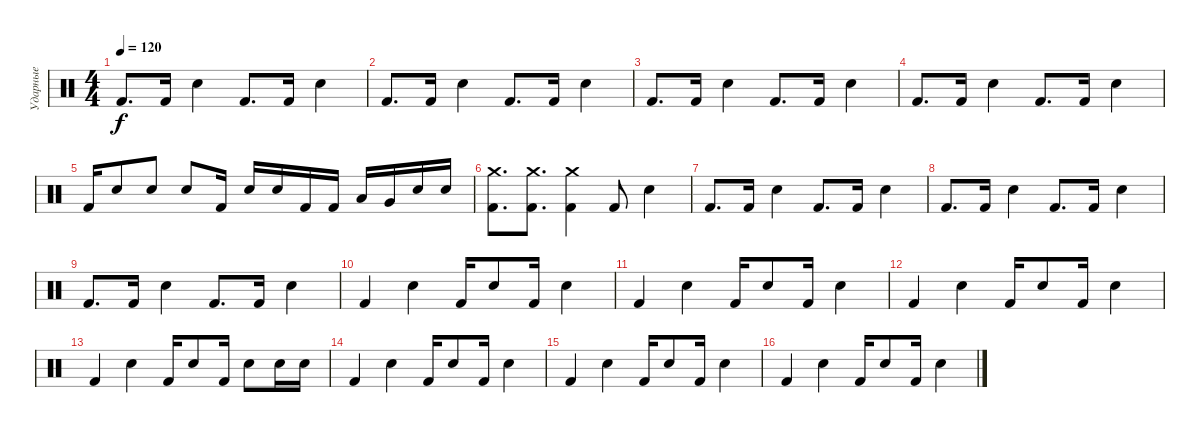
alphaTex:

\track ("Ударные" "Ударные") {instrument percussion}
\staff {score}
\articulation defaults
\ts (4 4)
\tempo 120
\clef neutral
\ks c "Kick (hit) 2".8{d dy f} "Kick (hit) 2".16 "Snare (hit) 2".4 "Kick (hit) 2".8{d} "Kick (hit) 2".16 "Snare (hit) 2".4
|
"Kick (hit) 2".8{d} "Kick (hit) 2".16 "Snare (hit) 2".4 "Kick (hit) 2".8{d} "Kick (hit) 2".16 "Snare (hit) 2".4 |
"Kick (hit) 2".8{d} "Kick (hit) 2".16 "Snare (hit) 2".4 "Kick (hit) 2".8{d} "Kick (hit) 2".16 "Snare (hit) 2".4 |
"Kick (hit) 2".8{d} "Kick (hit) 2".16 "Snare (hit) 2".4 "Kick (hit) 2".8{d} "Kick (hit) 2".16 "Snare (hit) 2".4 |
"Kick (hit) 2".16 "Snare (hit) 2".8 "Snare (hit) 2".8 "Snare (hit) 2".8 "Kick (hit) 2".16 "Snare (hit) 2".16 "Snare (hit) 2".16 "Kick (hit) 2".16 "Kick (hit) 2".16 "Low Tom (hit)".16 "Very Low Tom (hit)".16 "Snare (hit) 2".16 "Snare (hit) 2".16 |
("Crash medium (hit)" "Kick (hit) 2").8{d} ("Crash medium (hit)" "Kick (hit) 2").8{d} ("Crash medium (hit)" "Kick (hit) 2").4 "Kick (hit) 2".8 "Snare (hit) 2".4 |
"Kick (hit) 2".8{d} "Kick (hit) 2".16 "Snare (hit) 2".4 "Kick (hit) 2".8{d} "Kick (hit) 2".16 "Snare (hit) 2".4 |
"Kick (hit) 2".8{d} "Kick (hit) 2".16 "Snare (hit) 2".4 "Kick (hit) 2".8{d} "Kick (hit) 2".16 "Snare (hit) 2".4 |
"Kick (hit) 2".8{d} "Kick (hit) 2".16 "Snare (hit) 2".4 "Kick (hit) 2".8{d} "Kick (hit) 2".16 "Snare (hit) 2".4 |
"Kick (hit) 2".4 "Snare (hit) 2".4 "Kick (hit) 2".16 "Snare (hit) 2".8 "Kick (hit) 2".16 "Snare (hit) 2".4 |
"Kick (hit) 2".4 "Snare (hit) 2".4 "Kick (hit) 2".16 "Snare (hit) 2".8 "Kick (hit) 2".16 "Snare (hit) 2".4 |
"Kick (hit) 2".4 "Snare (hit) 2".4 "Kick (hit) 2".16 "Snare (hit) 2".8 "Kick (hit) 2".16 "Snare (hit) 2".4 |
"Kick (hit) 2".4 "Snare (hit) 2".4 "Kick (hit) 2".16 "Snare (hit) 2".8 "Kick (hit) 2".16 "Snare (hit) 2".8 "Snare (hit) 2".16 "Snare (hit) 2".16 |
"Kick (hit) 2".4 "Snare (hit) 2".4 "Kick (hit) 2".16 "Snare (hit) 2".8 "Kick (hit) 2".16 "Snare (hit) 2".4 |
"Kick (hit) 2".4 "Snare (hit) 2".4 "Kick (hit) 2".16 "Snare (hit) 2".8 "Kick (hit) 2".16 "Snare (hit) 2".4 |
"Kick (hit) 2".4 "Snare (hit) 2".4 "Kick (hit) 2".16 "Snare (hit) 2".8 "Kick (hit) 2".16 "Snare (hit) 2".4
